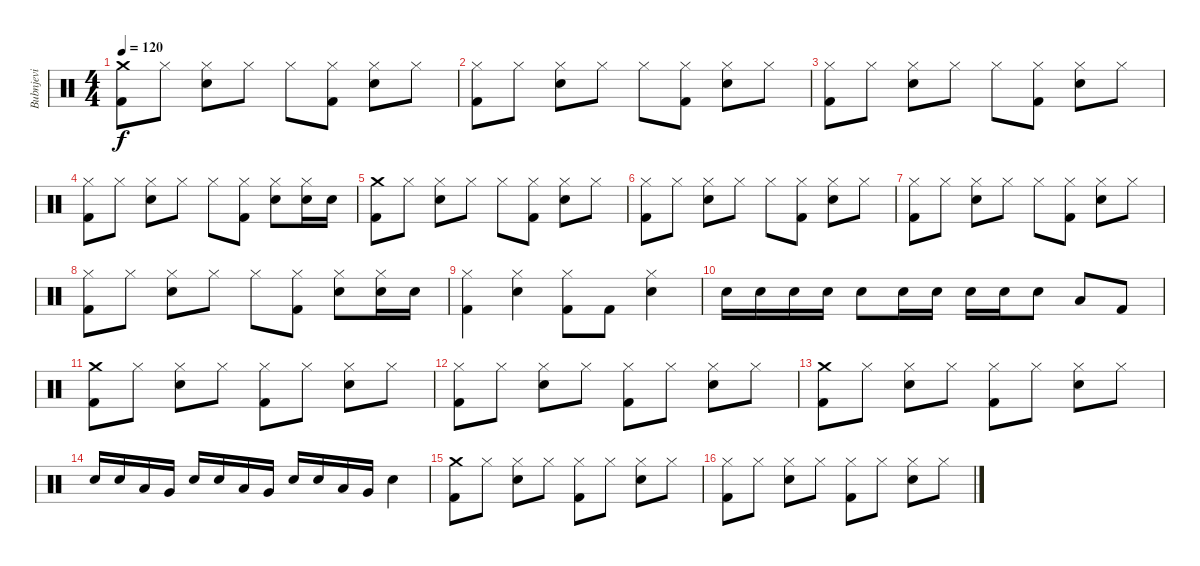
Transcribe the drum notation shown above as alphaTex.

\track ("Bubnjevi" "Bubnjevi") {instrument percussion}
\staff {score}
\articulation defaults
\ts (4 4)
\tempo 120
\clef neutral
\ks c
("Crash medium (hit)" "Kick (hit) 2").8{dy f} "Hi-Hat (closed)".8 ("Electric Snare (hit)" "Hi-Hat (closed)").8 "Hi-Hat (closed)".8 "Hi-Hat (closed)".8 ("Hi-Hat (closed)" "Kick (hit) 2").8 ("Electric Snare (hit)" "Hi-Hat (closed)").8 "Hi-Hat (closed)".8 |
("Hi-Hat (closed)" "Kick (hit) 2").8 "Hi-Hat (closed)".8 ("Electric Snare (hit)" "Hi-Hat (closed)").8 "Hi-Hat (closed)".8 "Hi-Hat (closed)".8 ("Hi-Hat (closed)" "Kick (hit) 2").8 ("Electric Snare (hit)" "Hi-Hat (closed)").8 "Hi-Hat (closed)".8 |
("Hi-Hat (closed)" "Kick (hit) 2").8 "Hi-Hat (closed)".8 ("Electric Snare (hit)" "Hi-Hat (closed)").8 "Hi-Hat (closed)".8 "Hi-Hat (closed)".8 ("Hi-Hat (closed)" "Kick (hit) 2").8 ("Electric Snare (hit)" "Hi-Hat (closed)").8 "Hi-Hat (closed)".8 |
("Hi-Hat (closed)" "Kick (hit) 2").8 "Hi-Hat (closed)".8 ("Electric Snare (hit)" "Hi-Hat (closed)").8 "Hi-Hat (closed)".8 "Hi-Hat (closed)".8 ("Hi-Hat (closed)" "Kick (hit) 2").8 ("Electric Snare (hit)" "Hi-Hat (closed)").8 ("Electric Snare (hit)" "Hi-Hat (closed)").16 "Electric Snare (hit)".16 |
("Crash medium (hit)" "Kick (hit) 2").8 "Hi-Hat (closed)".8 ("Electric Snare (hit)" "Hi-Hat (closed)").8 "Hi-Hat (closed)".8 "Hi-Hat (closed)".8 ("Hi-Hat (closed)" "Kick (hit) 2").8 ("Electric Snare (hit)" "Hi-Hat (closed)").8 "Hi-Hat (closed)".8 |
("Hi-Hat (closed)" "Kick (hit) 2").8 "Hi-Hat (closed)".8 ("Electric Snare (hit)" "Hi-Hat (closed)").8 "Hi-Hat (closed)".8 "Hi-Hat (closed)".8 ("Hi-Hat (closed)" "Kick (hit) 2").8 ("Electric Snare (hit)" "Hi-Hat (closed)").8 "Hi-Hat (closed)".8 |
("Hi-Hat (closed)" "Kick (hit) 2").8 "Hi-Hat (closed)".8 ("Electric Snare (hit)" "Hi-Hat (closed)").8 "Hi-Hat (closed)".8 "Hi-Hat (closed)".8 ("Hi-Hat (closed)" "Kick (hit) 2").8 ("Electric Snare (hit)" "Hi-Hat (closed)").8 "Hi-Hat (closed)".8 |
("Hi-Hat (closed)" "Kick (hit) 2").8 "Hi-Hat (closed)".8 ("Electric Snare (hit)" "Hi-Hat (closed)").8 "Hi-Hat (closed)".8 "Hi-Hat (closed)".8 ("Hi-Hat (closed)" "Kick (hit) 2").8 ("Electric Snare (hit)" "Hi-Hat (closed)").8 ("Electric Snare (hit)" "Hi-Hat (closed)").16 "Electric Snare (hit)".16 |
("Hi-Hat (closed)" "Kick (hit) 2").4 ("Electric Snare (hit)" "Hi-Hat (closed)").4 ("Hi-Hat (closed)" "Kick (hit) 2").8 "Kick (hit) 2".8 ("Electric Snare (hit)" "Hi-Hat (closed)").4 |
"Electric Snare (hit)".16 "Electric Snare (hit)".16 "Electric Snare (hit)".16 "Electric Snare (hit)".16 "Electric Snare (hit)".8 "Electric Snare (hit)".16 "Electric Snare (hit)".16 "Electric Snare (hit)".16 "Electric Snare (hit)".16 "Electric Snare (hit)".8 "Low Tom (hit)".8 "Kick (hit) 2".8 |
("Crash medium (hit)" "Kick (hit) 2").8 "Hi-Hat (closed)".8 ("Electric Snare (hit)" "Hi-Hat (closed)").8 "Hi-Hat (closed)".8 ("Hi-Hat (closed)" "Kick (hit) 2").8 "Hi-Hat (closed)".8 ("Electric Snare (hit)" "Hi-Hat (closed)").8 "Hi-Hat (closed)".8 |
("Hi-Hat (closed)" "Kick (hit) 2").8 "Hi-Hat (closed)".8 ("Electric Snare (hit)" "Hi-Hat (closed)").8 "Hi-Hat (closed)".8 ("Hi-Hat (closed)" "Kick (hit) 2").8 "Hi-Hat (closed)".8 ("Electric Snare (hit)" "Hi-Hat (closed)").8 "Hi-Hat (closed)".8 |
("Crash medium (hit)" "Kick (hit) 2").8 "Hi-Hat (closed)".8 ("Electric Snare (hit)" "Hi-Hat (closed)").8 "Hi-Hat (closed)".8 ("Hi-Hat (closed)" "Kick (hit) 2").8 "Hi-Hat (closed)".8 ("Electric Snare (hit)" "Hi-Hat (closed)").8 "Hi-Hat (closed)".8 |
"Electric Snare (hit)".16 "Electric Snare (hit)".16 "Low Tom (hit)".16 "Very Low Tom (hit)".16 "Electric Snare (hit)".16 "Electric Snare (hit)".16 "Low Tom (hit)".16 "Very Low Tom (hit)".16 "Electric Snare (hit)".16 "Electric Snare (hit)".16 "Low Tom (hit)".16 "Very Low Tom (hit)".16 "Electric Snare (hit)".4 |
("Crash medium (hit)" "Kick (hit) 2").8 "Hi-Hat (closed)".8 ("Electric Snare (hit)" "Hi-Hat (closed)").8 "Hi-Hat (closed)".8 ("Hi-Hat (closed)" "Kick (hit) 2").8 "Hi-Hat (closed)".8 ("Electric Snare (hit)" "Hi-Hat (closed)").8 "Hi-Hat (closed)".8 |
("Hi-Hat (closed)" "Kick (hit) 2").8 "Hi-Hat (closed)".8 ("Electric Snare (hit)" "Hi-Hat (closed)").8 "Hi-Hat (closed)".8 ("Hi-Hat (closed)" "Kick (hit) 2").8 "Hi-Hat (closed)".8 ("Electric Snare (hit)" "Hi-Hat (closed)").8 "Hi-Hat (closed)".8
